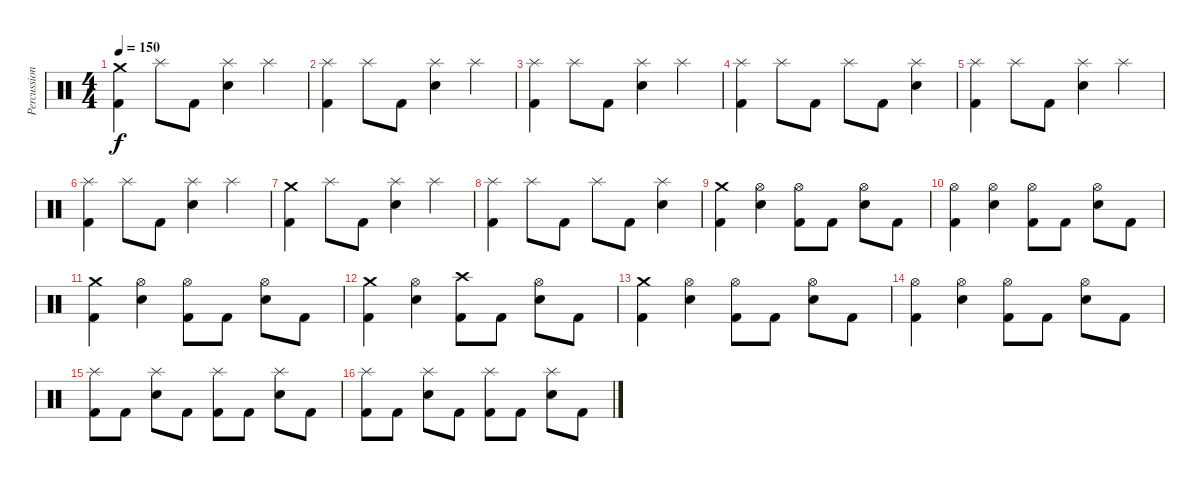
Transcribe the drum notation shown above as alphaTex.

\track ("Percussions" "Percussion") {instrument percussion}
\staff {score}
\articulation defaults
\ts (4 4)
\tempo 150
\clef neutral
\ks c
("Kick (hit) 2" "Crash medium (hit)").4{dy f} "Splash (hit)".8 "Kick (hit) 2".8 ("Snare (hit) 2" "Splash (hit)").4 "Splash (hit)".4 |
("Kick (hit) 2" "Splash (hit)").4 "Splash (hit)".8 "Kick (hit) 2".8 ("Snare (hit) 2" "Splash (hit)").4 "Splash (hit)".4 |
("Kick (hit) 2" "Splash (hit)").4 "Splash (hit)".8 "Kick (hit) 2".8 ("Snare (hit) 2" "Splash (hit)").4 "Splash (hit)".4 |
("Kick (hit) 2" "Splash (hit)").4 "Splash (hit)".8 "Kick (hit) 2".8 "Splash (hit)".8 "Kick (hit) 2".8 ("Snare (hit) 2" "Splash (hit)").4 |
("Kick (hit) 2" "Splash (hit)").4 "Splash (hit)".8 "Kick (hit) 2".8 ("Snare (hit) 2" "Splash (hit)").4 "Splash (hit)".4 |
("Kick (hit) 2" "Splash (hit)").4 "Splash (hit)".8 "Kick (hit) 2".8 ("Snare (hit) 2" "Splash (hit)").4 "Splash (hit)".4 |
("Kick (hit) 2" "Crash medium (hit)").4 "Splash (hit)".8 "Kick (hit) 2".8 ("Snare (hit) 2" "Splash (hit)").4 "Splash (hit)".4 |
("Kick (hit) 2" "Splash (hit)").4 "Splash (hit)".8 "Kick (hit) 2".8 "Splash (hit)".8 "Kick (hit) 2".8 ("Snare (hit) 2" "Splash (hit)").4 |
("Kick (hit) 2" "Crash medium (hit)").4 ("Snare (hit) 2" "Hi-Hat (open)").4 ("Kick (hit) 2" "Hi-Hat (open)").8 "Kick (hit) 2".8 ("Snare (hit) 2" "Hi-Hat (open)").8 "Kick (hit) 2".8 |
("Kick (hit) 2" "Hi-Hat (open)").4 ("Snare (hit) 2" "Hi-Hat (open)").4 ("Kick (hit) 2" "Hi-Hat (open)").8 "Kick (hit) 2".8 ("Snare (hit) 2" "Hi-Hat (open)").8 "Kick (hit) 2".8 |
("Kick (hit) 2" "Crash medium (hit)").4 ("Snare (hit) 2" "Hi-Hat (open)").4 ("Kick (hit) 2" "Hi-Hat (open)").8 "Kick (hit) 2".8 ("Snare (hit) 2" "Hi-Hat (open)").8 "Kick (hit) 2".8 |
("Kick (hit) 2" "Crash medium (hit)").4 ("Snare (hit) 2" "Hi-Hat (open)").4 ("Kick (hit) 2" "Crash high (hit)").8 "Kick (hit) 2".8 ("Snare (hit) 2" "Hi-Hat (open)").8 "Kick (hit) 2".8 |
("Kick (hit) 2" "Crash medium (hit)").4 ("Snare (hit) 2" "Hi-Hat (open)").4 ("Kick (hit) 2" "Hi-Hat (open)").8 "Kick (hit) 2".8 ("Snare (hit) 2" "Hi-Hat (open)").8 "Kick (hit) 2".8 |
("Kick (hit) 2" "Hi-Hat (open)").4 ("Snare (hit) 2" "Hi-Hat (open)").4 ("Kick (hit) 2" "Hi-Hat (open)").8 "Kick (hit) 2".8 ("Snare (hit) 2" "Hi-Hat (open)").8 "Kick (hit) 2".8 |
("Kick (hit) 2" "Splash (hit)").8 "Kick (hit) 2".8 ("Snare (hit) 2" "Splash (hit)").8 "Kick (hit) 2".8 ("Kick (hit) 2" "Splash (hit)").8 "Kick (hit) 2".8 ("Snare (hit) 2" "Splash (hit)").8 "Kick (hit) 2".8 |
("Kick (hit) 2" "Splash (hit)").8 "Kick (hit) 2".8 ("Snare (hit) 2" "Splash (hit)").8 "Kick (hit) 2".8 ("Kick (hit) 2" "Splash (hit)").8 "Kick (hit) 2".8 ("Snare (hit) 2" "Splash (hit)").8 "Kick (hit) 2".8
